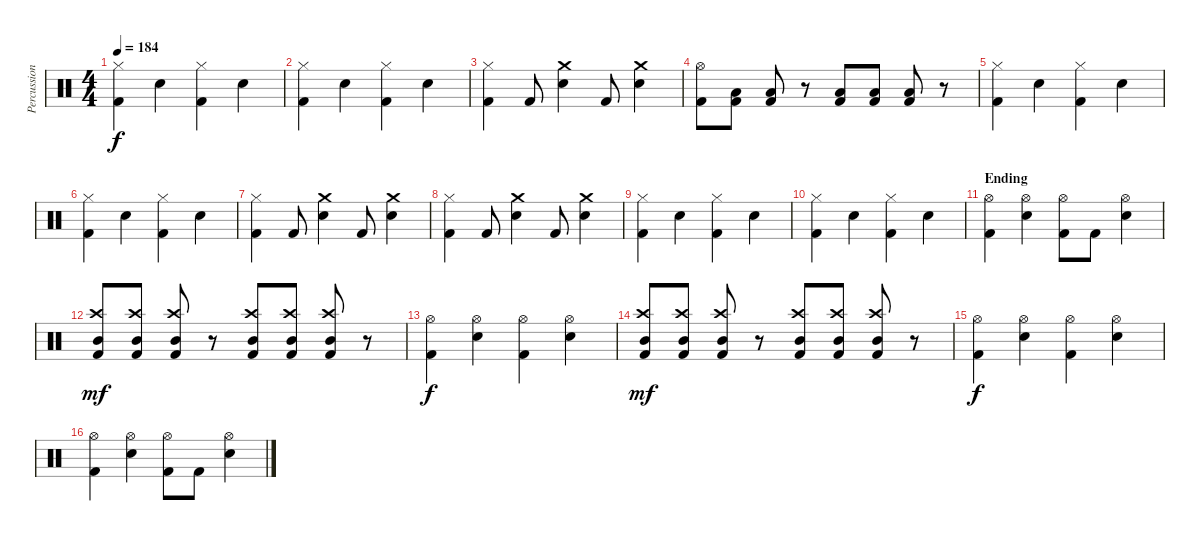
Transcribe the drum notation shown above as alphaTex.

\track ("Percussioni" "Percussion") {instrument percussion}
\staff {score}
\articulation defaults
\ts (4 4)
\tempo 184
\clef neutral
\ks c
("Hi-Hat (closed)" "Kick (hit) 2").4{dy f} "Electric Snare (hit)".4 ("Hi-Hat (closed)" "Kick (hit) 2").4 "Electric Snare (hit)".4 |
("Hi-Hat (closed)" "Kick (hit) 2").4 "Electric Snare (hit)".4 ("Hi-Hat (closed)" "Kick (hit) 2").4 "Electric Snare (hit)".4 |
("Hi-Hat (closed)" "Kick (hit) 2").4 "Kick (hit) 2".8 ("Crash medium (hit)" "Electric Snare (hit)").4 "Kick (hit) 2".8 ("Crash medium (hit)" "Electric Snare (hit)").4 |
("Hi-Hat (open)" "Kick (hit) 2").8 ("Low Tom (hit)" "Kick (hit) 2").8 ("Low Tom (hit)" "Kick (hit) 2").8 r.8 ("Low Tom (hit)" "Kick (hit) 2").8 ("Low Tom (hit)" "Kick (hit) 2").8 ("Low Tom (hit)" "Kick (hit) 2").8 r.8 |
("Hi-Hat (closed)" "Kick (hit) 2").4 "Electric Snare (hit)".4 ("Hi-Hat (closed)" "Kick (hit) 2").4 "Electric Snare (hit)".4 |
("Hi-Hat (closed)" "Kick (hit) 2").4 "Electric Snare (hit)".4 ("Hi-Hat (closed)" "Kick (hit) 2").4 "Electric Snare (hit)".4 |
("Hi-Hat (closed)" "Kick (hit) 2").4 "Kick (hit) 2".8 ("Crash medium (hit)" "Electric Snare (hit)").4 "Kick (hit) 2".8 ("Crash medium (hit)" "Electric Snare (hit)").4 |
("Hi-Hat (closed)" "Kick (hit) 2").4 "Kick (hit) 2".8 ("Crash medium (hit)" "Electric Snare (hit)").4 "Kick (hit) 2".8 ("Crash medium (hit)" "Electric Snare (hit)").4 |
("Hi-Hat (closed)" "Kick (hit) 2").4 "Electric Snare (hit)".4 ("Hi-Hat (closed)" "Kick (hit) 2").4 "Electric Snare (hit)".4 |
("Hi-Hat (closed)" "Kick (hit) 2").4 "Electric Snare (hit)".4 ("Hi-Hat (closed)" "Kick (hit) 2").4 "Electric Snare (hit)".4 |
\section ("" "Ending")
("Hi-Hat (open)" "Kick (hit) 2").4 ("Hi-Hat (open)" "Electric Snare (hit)").4 ("Hi-Hat (open)" "Kick (hit) 2").8 "Kick (hit) 2".8 ("Hi-Hat (open)" "Electric Snare (hit)").4 |
("Crash high (hit)" "Mid Tom (hit)" "Kick (hit) 2").8{dy mf} ("Crash high (hit)" "Mid Tom (hit)" "Kick (hit) 2").8 ("Crash high (hit)" "Mid Tom (hit)" "Kick (hit) 2").8 r.8 ("Crash high (hit)" "Mid Tom (hit)" "Kick (hit) 2").8 ("Crash high (hit)" "Mid Tom (hit)" "Kick (hit) 2").8 ("Crash high (hit)" "Mid Tom (hit)" "Kick (hit) 2").8 r.8 |
("Hi-Hat (open)" "Kick (hit) 2").4{dy f} ("Hi-Hat (open)" "Electric Snare (hit)").4 ("Hi-Hat (open)" "Kick (hit) 2").4 ("Hi-Hat (open)" "Electric Snare (hit)").4 |
("Crash high (hit)" "Mid Tom (hit)" "Kick (hit) 2").8{dy mf} ("Crash high (hit)" "Mid Tom (hit)" "Kick (hit) 2").8 ("Crash high (hit)" "Mid Tom (hit)" "Kick (hit) 2").8 r.8 ("Crash high (hit)" "Mid Tom (hit)" "Kick (hit) 2").8 ("Crash high (hit)" "Mid Tom (hit)" "Kick (hit) 2").8 ("Crash high (hit)" "Mid Tom (hit)" "Kick (hit) 2").8 r.8 |
("Hi-Hat (open)" "Kick (hit) 2").4{dy f} ("Hi-Hat (open)" "Electric Snare (hit)").4 ("Hi-Hat (open)" "Kick (hit) 2").4 ("Hi-Hat (open)" "Electric Snare (hit)").4 |
("Hi-Hat (open)" "Kick (hit) 2").4 ("Hi-Hat (open)" "Electric Snare (hit)").4 ("Hi-Hat (open)" "Kick (hit) 2").8 "Kick (hit) 2".8 ("Hi-Hat (open)" "Electric Snare (hit)").4
